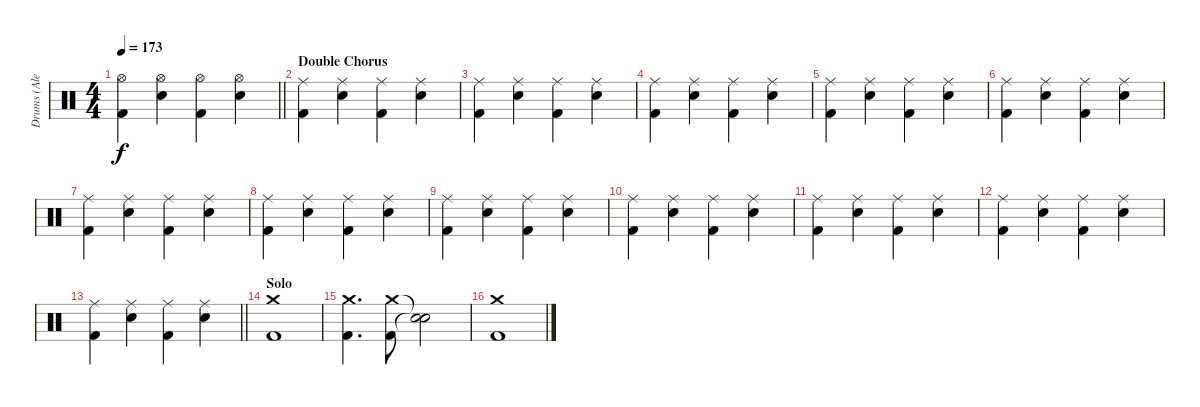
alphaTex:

\track ("Drums (Alex Van Halen)" "Drums (Ale") {instrument percussion}
\staff {score}
\articulation defaults
\ts (4 4)
\tempo 173
\clef neutral
\barLineRight lightlight
\ks c
("Kick (hit) 2" "Hi-Hat (open)").4{dy f} ("Snare (hit) 2" "Hi-Hat (open)").4 ("Kick (hit) 2" "Hi-Hat (open)").4 ("Snare (hit) 2" "Hi-Hat (open)").4 |
\section ("" "Double Chorus")
("Kick (hit) 2" "Ride (middle)").4 ("Snare (hit) 2" "Ride (middle)").4 ("Kick (hit) 2" "Ride (middle)").4 ("Snare (hit) 2" "Ride (middle)").4 |
("Kick (hit) 2" "Ride (middle)").4 ("Snare (hit) 2" "Ride (middle)").4 ("Kick (hit) 2" "Ride (middle)").4 ("Snare (hit) 2" "Ride (middle)").4 |
("Kick (hit) 2" "Ride (middle)").4 ("Snare (hit) 2" "Ride (middle)").4 ("Kick (hit) 2" "Ride (middle)").4 ("Snare (hit) 2" "Ride (middle)").4 |
("Kick (hit) 2" "Ride (middle)").4 ("Snare (hit) 2" "Ride (middle)").4 ("Kick (hit) 2" "Ride (middle)").4 ("Snare (hit) 2" "Ride (middle)").4 |
("Kick (hit) 2" "Ride (middle)").4 ("Snare (hit) 2" "Ride (middle)").4 ("Kick (hit) 2" "Ride (middle)").4 ("Snare (hit) 2" "Ride (middle)").4 |
("Kick (hit) 2" "Ride (middle)").4 ("Snare (hit) 2" "Ride (middle)").4 ("Kick (hit) 2" "Ride (middle)").4 ("Snare (hit) 2" "Ride (middle)").4 |
("Kick (hit) 2" "Ride (middle)").4 ("Snare (hit) 2" "Ride (middle)").4 ("Kick (hit) 2" "Ride (middle)").4 ("Snare (hit) 2" "Ride (middle)").4 |
("Kick (hit) 2" "Ride (middle)").4 ("Snare (hit) 2" "Ride (middle)").4 ("Kick (hit) 2" "Ride (middle)").4 ("Snare (hit) 2" "Ride (middle)").4 |
("Kick (hit) 2" "Ride (middle)").4 ("Snare (hit) 2" "Ride (middle)").4 ("Kick (hit) 2" "Ride (middle)").4 ("Snare (hit) 2" "Ride (middle)").4 |
("Kick (hit) 2" "Ride (middle)").4 ("Snare (hit) 2" "Ride (middle)").4 ("Kick (hit) 2" "Ride (middle)").4 ("Snare (hit) 2" "Ride (middle)").4 |
("Kick (hit) 2" "Ride (middle)").4 ("Snare (hit) 2" "Ride (middle)").4 ("Kick (hit) 2" "Ride (middle)").4 ("Snare (hit) 2" "Ride (middle)").4 |
\barLineRight lightlight
("Kick (hit) 2" "Ride (middle)").4 ("Snare (hit) 2" "Ride (middle)").4 ("Kick (hit) 2" "Ride (middle)").4 ("Snare (hit) 2" "Ride (middle)").4 |
\section ("" "Solo")
("Kick (hit) 2" "Crash medium (hit)").1 |
("Kick (hit) 2" "Crash medium (hit)").4{d} ("Kick (hit) 2" "Crash medium (hit)").8 ("Snare (hit)"{t} "Snare (hit)"{t}).2 |
("Kick (hit) 2" "Crash medium (hit)").1
